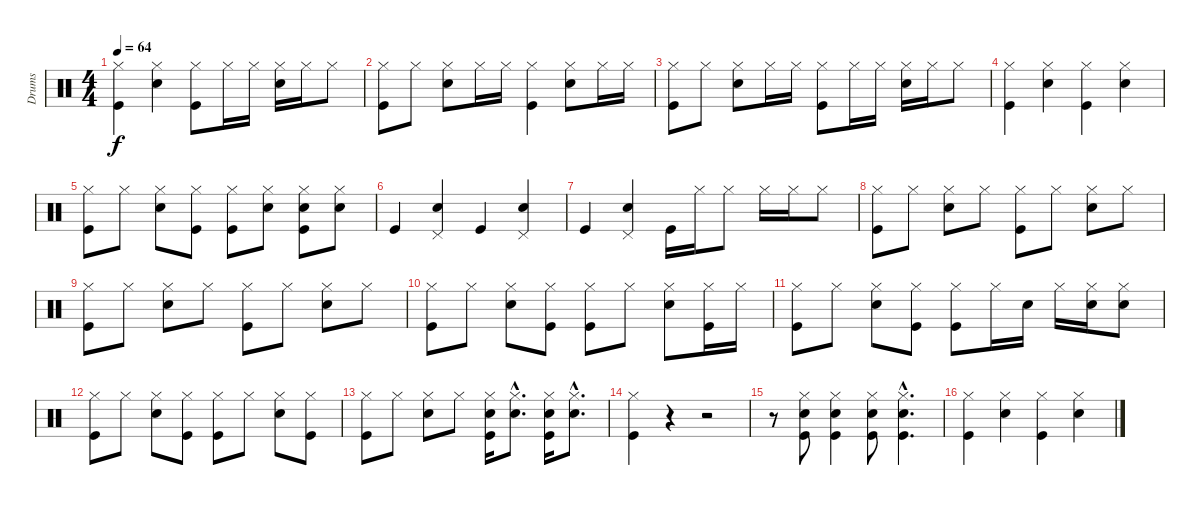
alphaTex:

\track ("Drums" "Drums") {instrument percussion}
\staff {score}
\articulation defaults
\ts (4 4)
\tempo 64
\clef neutral
\ks c
("Hi-Hat (closed)" "Kick (hit)").4{dy f} ("Hi-Hat (closed)" "Snare (hit) 2").4 ("Hi-Hat (closed)" "Kick (hit)").8 "Hi-Hat (closed)".16 "Hi-Hat (closed)".16 ("Hi-Hat (closed)" "Snare (hit) 2").16 "Hi-Hat (closed)".16 "Hi-Hat (closed)".8 |
("Hi-Hat (closed)" "Kick (hit)").8 "Hi-Hat (closed)".8 ("Hi-Hat (closed)" "Snare (hit) 2").8 "Hi-Hat (closed)".16 "Hi-Hat (closed)".16 ("Hi-Hat (closed)" "Kick (hit)").4 ("Hi-Hat (closed)" "Snare (hit) 2").8 "Hi-Hat (closed)".16 "Hi-Hat (closed)".16 |
("Hi-Hat (closed)" "Kick (hit)").8 "Hi-Hat (closed)".8 ("Hi-Hat (closed)" "Snare (hit) 2").8 "Hi-Hat (closed)".16 "Hi-Hat (closed)".16 ("Hi-Hat (closed)" "Kick (hit)").8 "Hi-Hat (closed)".16 "Hi-Hat (closed)".16 ("Hi-Hat (closed)" "Snare (hit) 2").16 "Hi-Hat (closed)".16 "Hi-Hat (closed)".8 |
("Hi-Hat (closed)" "Kick (hit)").4 ("Hi-Hat (closed)" "Snare (hit) 2").4 ("Hi-Hat (closed)" "Kick (hit)").4 ("Hi-Hat (closed)" "Snare (hit) 2").4 |
("Hi-Hat (closed)" "Kick (hit)").8 "Hi-Hat (closed)".8 ("Hi-Hat (closed)" "Snare (hit) 2").8 ("Hi-Hat (closed)" "Kick (hit)").8 ("Hi-Hat (closed)" "Kick (hit)").8 ("Hi-Hat (closed)" "Snare (hit) 2").8 ("Hi-Hat (closed)" "Snare (hit) 2" "Kick (hit)").8 ("Hi-Hat (closed)" "Snare (hit) 2").8 |
"Kick (hit)".4 ("Pedal Hi-Hat (hit)" "Snare (hit) 2").4 "Kick (hit)".4 ("Pedal Hi-Hat (hit)" "Snare (hit) 2").4 |
"Kick (hit)".4 ("Pedal Hi-Hat (hit)" "Snare (hit) 2").4 "Kick (hit)".16 "Hi-Hat (closed)".16 "Hi-Hat (closed)".8 "Hi-Hat (closed)".16 "Hi-Hat (closed)".16 "Hi-Hat (closed)".8 |
("Hi-Hat (closed)" "Kick (hit)").8 "Hi-Hat (closed)".8 ("Hi-Hat (closed)" "Snare (hit) 2").8 "Hi-Hat (closed)".8 ("Hi-Hat (closed)" "Kick (hit)").8 "Hi-Hat (closed)".8 ("Hi-Hat (closed)" "Snare (hit) 2").8 "Hi-Hat (closed)".8 |
("Hi-Hat (closed)" "Kick (hit)").8 "Hi-Hat (closed)".8 ("Hi-Hat (closed)" "Snare (hit) 2").8 "Hi-Hat (closed)".8 ("Hi-Hat (closed)" "Kick (hit)").8 "Hi-Hat (closed)".8 ("Hi-Hat (closed)" "Snare (hit) 2").8 "Hi-Hat (closed)".8 |
("Hi-Hat (closed)" "Kick (hit)").8 "Hi-Hat (closed)".8 ("Hi-Hat (closed)" "Snare (hit) 2").8 ("Hi-Hat (closed)" "Kick (hit)").8 ("Hi-Hat (closed)" "Kick (hit)").8 "Hi-Hat (closed)".8 ("Hi-Hat (closed)" "Snare (hit) 2").8 ("Hi-Hat (closed)" "Kick (hit)").16 "Hi-Hat (closed)".16 |
("Hi-Hat (closed)" "Kick (hit)").8 "Hi-Hat (closed)".8 ("Hi-Hat (closed)" "Snare (hit) 2").8 ("Hi-Hat (closed)" "Kick (hit)").8 ("Hi-Hat (closed)" "Kick (hit)").8 "Hi-Hat (closed)".16 "Snare (hit) 2".16 "Hi-Hat (closed)".16 ("Hi-Hat (closed)" "Snare (hit) 2").16 ("Hi-Hat (closed)" "Snare (hit) 2").8 |
("Hi-Hat (closed)" "Kick (hit)").8 "Hi-Hat (closed)".8 ("Hi-Hat (closed)" "Snare (hit) 2").8 ("Hi-Hat (closed)" "Kick (hit)").8 ("Hi-Hat (closed)" "Kick (hit)").8 "Hi-Hat (closed)".8 ("Hi-Hat (closed)" "Snare (hit) 2").8 ("Hi-Hat (closed)" "Kick (hit)").8 |
("Hi-Hat (closed)" "Kick (hit)").8 "Hi-Hat (closed)".8 ("Hi-Hat (closed)" "Snare (hit) 2").8 "Hi-Hat (closed)".8 ("Hi-Hat (closed)" "Snare (hit) 2" "Kick (hit)").16 ("Hi-Hat (closed)"{hac} "Snare (hit) 2"{hac}).8{d} ("Hi-Hat (closed)" "Snare (hit) 2" "Kick (hit)").16 ("Hi-Hat (closed)"{hac} "Snare (hit) 2"{hac}).8{d} |
("Hi-Hat (closed)" "Kick (hit)").4 r.4 r.2 |
r.8 ("Hi-Hat (closed)" "Snare (hit) 2" "Kick (hit)").8 ("Hi-Hat (closed)" "Snare (hit) 2" "Kick (hit)").4 ("Hi-Hat (closed)" "Snare (hit) 2" "Kick (hit)").8 ("Hi-Hat (closed)"{hac} "Snare (hit) 2"{hac} "Kick (hit)"{hac}).4{d} |
("Hi-Hat (closed)" "Kick (hit)").4 ("Hi-Hat (closed)" "Snare (hit) 2").4 ("Hi-Hat (closed)" "Kick (hit)").4 ("Hi-Hat (closed)" "Snare (hit) 2").4
